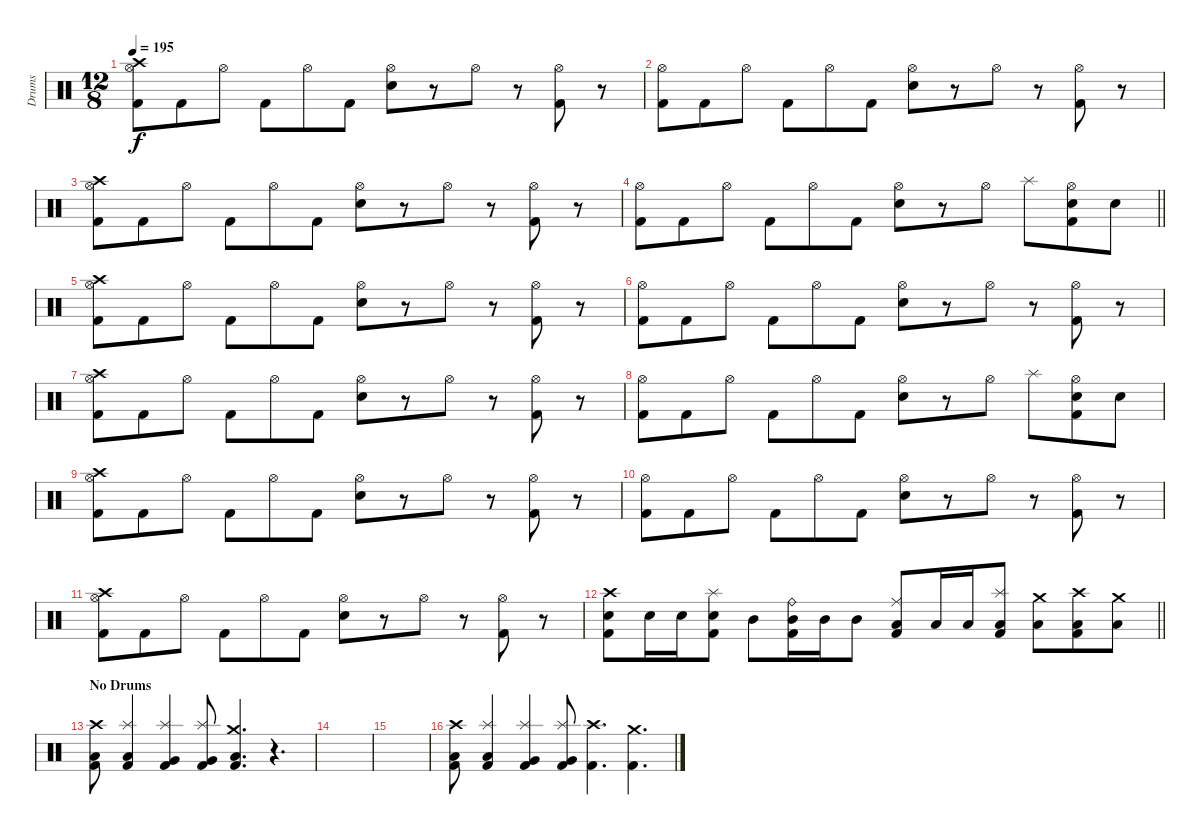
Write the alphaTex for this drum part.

\track ("Drums" "Drums") {instrument percussion}
\staff {score}
\articulation defaults
\ts (12 8)
\tempo 195
\clef neutral
\ks c
("Crash high (hit)" "Hi-Hat (open)" "Kick (hit) 2").8{dy f} "Kick (hit) 2".8 "Hi-Hat (open)".8 "Kick (hit) 2".8 "Hi-Hat (open)".8 "Kick (hit) 2".8 ("Hi-Hat (open)" "Snare (hit) 2").8 r.8 "Hi-Hat (open)".8 r.8 ("Hi-Hat (open)" "Kick (hit) 2").8 r.8 |
("Hi-Hat (open)" "Kick (hit) 2").8 "Kick (hit) 2".8 "Hi-Hat (open)".8 "Kick (hit) 2".8 "Hi-Hat (open)".8 "Kick (hit) 2".8 ("Hi-Hat (open)" "Snare (hit) 2").8 r.8 "Hi-Hat (open)".8 r.8 ("Hi-Hat (open)" "Kick (hit) 2").8 r.8 |
("Crash high (hit)" "Hi-Hat (open)" "Kick (hit) 2").8 "Kick (hit) 2".8 "Hi-Hat (open)".8 "Kick (hit) 2".8 "Hi-Hat (open)".8 "Kick (hit) 2".8 ("Hi-Hat (open)" "Snare (hit) 2").8 r.8 "Hi-Hat (open)".8 r.8 ("Hi-Hat (open)" "Kick (hit) 2").8 r.8 |
\barLineRight lightlight
("Hi-Hat (open)" "Kick (hit) 2").8 "Kick (hit) 2".8 "Hi-Hat (open)".8 "Kick (hit) 2".8 "Hi-Hat (open)".8 "Kick (hit) 2".8 ("Hi-Hat (open)" "Snare (hit) 2").8 r.8 "Hi-Hat (open)".8 "Splash (hit)".8 ("Hi-Hat (open)" "Snare (hit) 2" "Kick (hit) 2").8 "Snare (hit) 2".8 |
("Crash high (hit)" "Hi-Hat (open)" "Kick (hit) 2").8 "Kick (hit) 2".8 "Hi-Hat (open)".8 "Kick (hit) 2".8 "Hi-Hat (open)".8 "Kick (hit) 2".8 ("Hi-Hat (open)" "Snare (hit) 2").8 r.8 "Hi-Hat (open)".8 r.8 ("Hi-Hat (open)" "Kick (hit) 2").8 r.8 |
("Hi-Hat (open)" "Kick (hit) 2").8 "Kick (hit) 2".8 "Hi-Hat (open)".8 "Kick (hit) 2".8 "Hi-Hat (open)".8 "Kick (hit) 2".8 ("Hi-Hat (open)" "Snare (hit) 2").8 r.8 "Hi-Hat (open)".8 r.8 ("Hi-Hat (open)" "Kick (hit) 2").8 r.8 |
("Crash high (hit)" "Hi-Hat (open)" "Kick (hit) 2").8 "Kick (hit) 2".8 "Hi-Hat (open)".8 "Kick (hit) 2".8 "Hi-Hat (open)".8 "Kick (hit) 2".8 ("Hi-Hat (open)" "Snare (hit) 2").8 r.8 "Hi-Hat (open)".8 r.8 ("Hi-Hat (open)" "Kick (hit) 2").8 r.8 |
("Hi-Hat (open)" "Kick (hit) 2").8 "Kick (hit) 2".8 "Hi-Hat (open)".8 "Kick (hit) 2".8 "Hi-Hat (open)".8 "Kick (hit) 2".8 ("Hi-Hat (open)" "Snare (hit) 2").8 r.8 "Hi-Hat (open)".8 "Splash (hit)".8 ("Hi-Hat (open)" "Snare (hit) 2" "Kick (hit) 2").8 "Snare (hit) 2".8 |
("Crash high (hit)" "Hi-Hat (open)" "Kick (hit) 2").8 "Kick (hit) 2".8 "Hi-Hat (open)".8 "Kick (hit) 2".8 "Hi-Hat (open)".8 "Kick (hit) 2".8 ("Hi-Hat (open)" "Snare (hit) 2").8 r.8 "Hi-Hat (open)".8 r.8 ("Hi-Hat (open)" "Kick (hit) 2").8 r.8 |
("Hi-Hat (open)" "Kick (hit) 2").8 "Kick (hit) 2".8 "Hi-Hat (open)".8 "Kick (hit) 2".8 "Hi-Hat (open)".8 "Kick (hit) 2".8 ("Hi-Hat (open)" "Snare (hit) 2").8 r.8 "Hi-Hat (open)".8 r.8 ("Hi-Hat (open)" "Kick (hit) 2").8 r.8 |
("Crash high (hit)" "Hi-Hat (open)" "Kick (hit) 2").8 "Kick (hit) 2".8 "Hi-Hat (open)".8 "Kick (hit) 2".8 "Hi-Hat (open)".8 "Kick (hit) 2".8 ("Hi-Hat (open)" "Snare (hit) 2").8 r.8 "Hi-Hat (open)".8 r.8 ("Hi-Hat (open)" "Kick (hit) 2").8 r.8 |
\barLineRight lightlight
("Crash high (hit)" "Snare (hit) 2" "Kick (hit) 2").8 "Snare (hit) 2".16 "Snare (hit) 2".16 ("Splash (hit)" "Snare (hit) 2" "Kick (hit) 2").8 "Mid Tom (hit)".8 ("Ride (bell)" "Mid Tom (hit)" "Kick (hit) 2").16 "Mid Tom (hit)".16 "Mid Tom (hit)".8 ("Ride (middle)" "Low Tom (hit)" "Kick (hit) 2").8 "Low Tom (hit)".16 "Low Tom (hit)".16 ("Splash (hit)" "Low Tom (hit)" "Kick (hit) 2").8 ("Crash medium (hit)" "Low Floor Tom (hit)").8 ("Crash high (hit)" "Low Floor Tom (hit)" "Kick (hit) 2").8 ("Crash medium (hit)" "Low Floor Tom (hit)").8 |
\section ("" "No Drums")
("Crash high (hit)" "Low Tom (hit)" "Kick (hit) 2").8 ("Splash (hit)" "Low Tom (hit)" "Kick (hit) 2").4 ("Splash (hit)" "Very Low Tom (hit)" "Kick (hit) 2").4 ("Splash (hit)" "Very Low Tom (hit)" "Kick (hit) 2").8 ("Crash medium (hit)" "Low Floor Tom (hit)" "Kick (hit) 2").4{d} r.4{d} |
|
|
("Crash high (hit)" "Low Tom (hit)" "Kick (hit) 2").8 ("Splash (hit)" "Low Tom (hit)" "Kick (hit) 2").4 ("Splash (hit)" "Very Low Tom (hit)" "Kick (hit) 2").4 ("Splash (hit)" "Very Low Tom (hit)" "Kick (hit) 2").8 ("Crash high (hit)" "Kick (hit) 2").4{d} ("Crash medium (hit)" "Kick (hit) 2").4{d}
